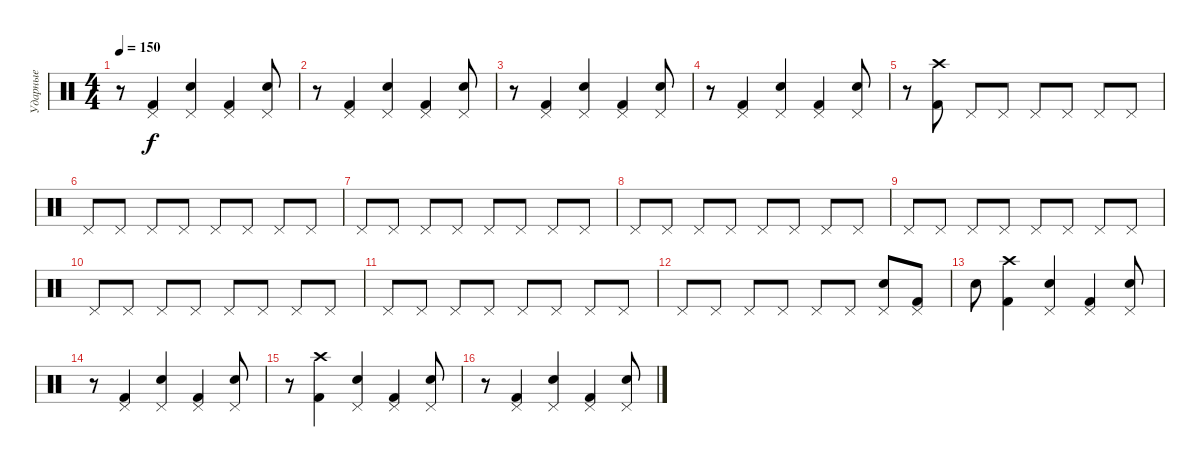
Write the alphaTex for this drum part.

\track ("Ударные" "Ударные") {instrument percussion}
\staff {score}
\articulation defaults
\ts (4 4)
\tempo 150
\clef neutral
\ks c
r.8{dy f} ("Kick (hit) 2" "Pedal Hi-Hat (hit)").4 ("Electric Snare (hit)" "Pedal Hi-Hat (hit)").4 ("Kick (hit) 2" "Pedal Hi-Hat (hit)").4 ("Electric Snare (hit)" "Pedal Hi-Hat (hit)").8 |
r.8 ("Kick (hit) 2" "Pedal Hi-Hat (hit)").4 ("Electric Snare (hit)" "Pedal Hi-Hat (hit)").4 ("Kick (hit) 2" "Pedal Hi-Hat (hit)").4 ("Electric Snare (hit)" "Pedal Hi-Hat (hit)").8 |
r.8 ("Kick (hit) 2" "Pedal Hi-Hat (hit)").4 ("Electric Snare (hit)" "Pedal Hi-Hat (hit)").4 ("Kick (hit) 2" "Pedal Hi-Hat (hit)").4 ("Electric Snare (hit)" "Pedal Hi-Hat (hit)").8 |
r.8 ("Kick (hit) 2" "Pedal Hi-Hat (hit)").4 ("Electric Snare (hit)" "Pedal Hi-Hat (hit)").4 ("Kick (hit) 2" "Pedal Hi-Hat (hit)").4 ("Electric Snare (hit)" "Pedal Hi-Hat (hit)").8 |
r.8 ("Kick (hit) 2" "Crash high (hit)").8 "Pedal Hi-Hat (hit)".8 "Pedal Hi-Hat (hit)".8 "Pedal Hi-Hat (hit)".8 "Pedal Hi-Hat (hit)".8 "Pedal Hi-Hat (hit)".8 "Pedal Hi-Hat (hit)".8 |
"Pedal Hi-Hat (hit)".8 "Pedal Hi-Hat (hit)".8 "Pedal Hi-Hat (hit)".8 "Pedal Hi-Hat (hit)".8 "Pedal Hi-Hat (hit)".8 "Pedal Hi-Hat (hit)".8 "Pedal Hi-Hat (hit)".8 "Pedal Hi-Hat (hit)".8 |
"Pedal Hi-Hat (hit)".8 "Pedal Hi-Hat (hit)".8 "Pedal Hi-Hat (hit)".8 "Pedal Hi-Hat (hit)".8 "Pedal Hi-Hat (hit)".8 "Pedal Hi-Hat (hit)".8 "Pedal Hi-Hat (hit)".8 "Pedal Hi-Hat (hit)".8 |
"Pedal Hi-Hat (hit)".8 "Pedal Hi-Hat (hit)".8 "Pedal Hi-Hat (hit)".8 "Pedal Hi-Hat (hit)".8 "Pedal Hi-Hat (hit)".8 "Pedal Hi-Hat (hit)".8 "Pedal Hi-Hat (hit)".8 "Pedal Hi-Hat (hit)".8 |
"Pedal Hi-Hat (hit)".8 "Pedal Hi-Hat (hit)".8 "Pedal Hi-Hat (hit)".8 "Pedal Hi-Hat (hit)".8 "Pedal Hi-Hat (hit)".8 "Pedal Hi-Hat (hit)".8 "Pedal Hi-Hat (hit)".8 "Pedal Hi-Hat (hit)".8 |
"Pedal Hi-Hat (hit)".8 "Pedal Hi-Hat (hit)".8 "Pedal Hi-Hat (hit)".8 "Pedal Hi-Hat (hit)".8 "Pedal Hi-Hat (hit)".8 "Pedal Hi-Hat (hit)".8 "Pedal Hi-Hat (hit)".8 "Pedal Hi-Hat (hit)".8 |
"Pedal Hi-Hat (hit)".8 "Pedal Hi-Hat (hit)".8 "Pedal Hi-Hat (hit)".8 "Pedal Hi-Hat (hit)".8 "Pedal Hi-Hat (hit)".8 "Pedal Hi-Hat (hit)".8 "Pedal Hi-Hat (hit)".8 "Pedal Hi-Hat (hit)".8 |
"Pedal Hi-Hat (hit)".8 "Pedal Hi-Hat (hit)".8 "Pedal Hi-Hat (hit)".8 "Pedal Hi-Hat (hit)".8 "Pedal Hi-Hat (hit)".8 "Pedal Hi-Hat (hit)".8 ("Electric Snare (hit)" "Pedal Hi-Hat (hit)").8 ("Kick (hit) 2" "Pedal Hi-Hat (hit)").8 |
"Electric Snare (hit)".8 ("Kick (hit) 2" "Crash high (hit)").4 ("Electric Snare (hit)" "Pedal Hi-Hat (hit)").4 ("Kick (hit) 2" "Pedal Hi-Hat (hit)").4 ("Electric Snare (hit)" "Pedal Hi-Hat (hit)").8 |
r.8 ("Kick (hit) 2" "Pedal Hi-Hat (hit)").4 ("Electric Snare (hit)" "Pedal Hi-Hat (hit)").4 ("Kick (hit) 2" "Pedal Hi-Hat (hit)").4 ("Electric Snare (hit)" "Pedal Hi-Hat (hit)").8 |
r.8 ("Kick (hit) 2" "Crash high (hit)").4 ("Electric Snare (hit)" "Pedal Hi-Hat (hit)").4 ("Kick (hit) 2" "Pedal Hi-Hat (hit)").4 ("Electric Snare (hit)" "Pedal Hi-Hat (hit)").8 |
r.8 ("Kick (hit) 2" "Pedal Hi-Hat (hit)").4 ("Electric Snare (hit)" "Pedal Hi-Hat (hit)").4 ("Kick (hit) 2" "Pedal Hi-Hat (hit)").4 ("Electric Snare (hit)" "Pedal Hi-Hat (hit)").8
